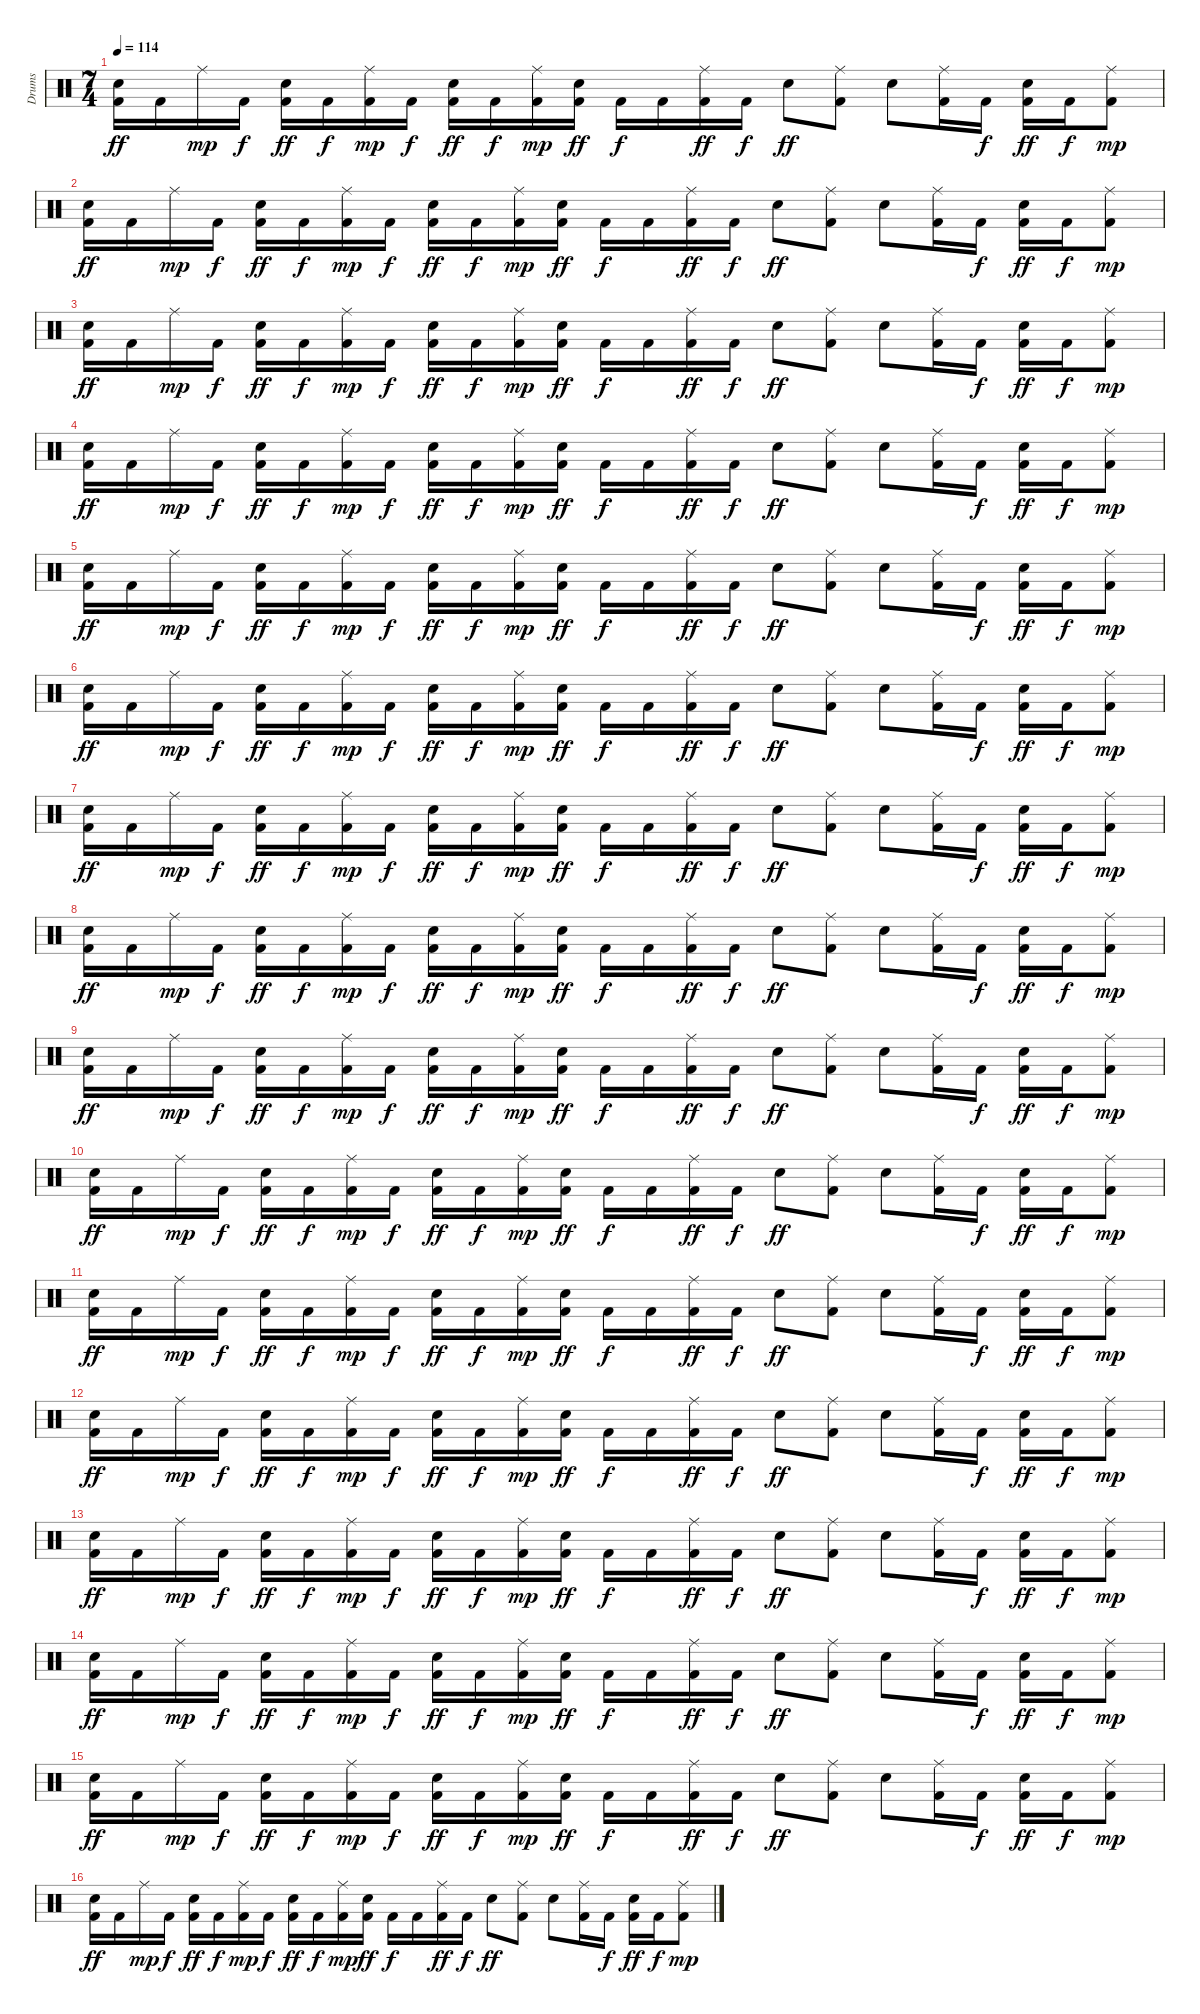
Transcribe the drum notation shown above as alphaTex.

\track ("Drums" "Drums") {instrument percussion}
\staff {score}
\articulation defaults
\ts (7 4)
\tempo 114
\clef neutral
\ks c
("Snare (hit) 2" "Kick (hit) 2").16{dy ff} "Kick (hit) 2".16 "Ride (middle)".16{dy mp} "Kick (hit) 2".16{dy f} ("Snare (hit) 2" "Kick (hit) 2").16{dy ff} "Kick (hit) 2".16{dy f} ("Ride (middle)" "Kick (hit) 2").16{dy mp} "Kick (hit) 2".16{dy f} ("Snare (hit) 2" "Kick (hit) 2").16{dy ff} "Kick (hit) 2".16{dy f} ("Ride (middle)" "Kick (hit) 2").16{dy mp} ("Snare (hit) 2" "Kick (hit) 2").16{dy ff} "Kick (hit) 2".16{dy f} "Kick (hit) 2".16 ("Ride (middle)" "Kick (hit) 2").16{dy ff} "Kick (hit) 2".16{dy f} "Snare (hit) 2".8{dy ff} ("Ride (middle)" "Kick (hit) 2").8 "Snare (hit) 2".8 ("Ride (middle)" "Kick (hit) 2").16 "Kick (hit) 2".16{dy f} ("Snare (hit) 2" "Kick (hit) 2").16{dy ff} "Kick (hit) 2".16{dy f} ("Ride (middle)" "Kick (hit) 2").8{dy mp} |
("Snare (hit) 2" "Kick (hit) 2").16{dy ff} "Kick (hit) 2".16 "Ride (middle)".16{dy mp} "Kick (hit) 2".16{dy f} ("Snare (hit) 2" "Kick (hit) 2").16{dy ff} "Kick (hit) 2".16{dy f} ("Ride (middle)" "Kick (hit) 2").16{dy mp} "Kick (hit) 2".16{dy f} ("Snare (hit) 2" "Kick (hit) 2").16{dy ff} "Kick (hit) 2".16{dy f} ("Ride (middle)" "Kick (hit) 2").16{dy mp} ("Snare (hit) 2" "Kick (hit) 2").16{dy ff} "Kick (hit) 2".16{dy f} "Kick (hit) 2".16 ("Ride (middle)" "Kick (hit) 2").16{dy ff} "Kick (hit) 2".16{dy f} "Snare (hit) 2".8{dy ff} ("Ride (middle)" "Kick (hit) 2").8 "Snare (hit) 2".8 ("Ride (middle)" "Kick (hit) 2").16 "Kick (hit) 2".16{dy f} ("Snare (hit) 2" "Kick (hit) 2").16{dy ff} "Kick (hit) 2".16{dy f} ("Ride (middle)" "Kick (hit) 2").8{dy mp} |
("Snare (hit) 2" "Kick (hit) 2").16{dy ff} "Kick (hit) 2".16 "Ride (middle)".16{dy mp} "Kick (hit) 2".16{dy f} ("Snare (hit) 2" "Kick (hit) 2").16{dy ff} "Kick (hit) 2".16{dy f} ("Ride (middle)" "Kick (hit) 2").16{dy mp} "Kick (hit) 2".16{dy f} ("Snare (hit) 2" "Kick (hit) 2").16{dy ff} "Kick (hit) 2".16{dy f} ("Ride (middle)" "Kick (hit) 2").16{dy mp} ("Snare (hit) 2" "Kick (hit) 2").16{dy ff} "Kick (hit) 2".16{dy f} "Kick (hit) 2".16 ("Ride (middle)" "Kick (hit) 2").16{dy ff} "Kick (hit) 2".16{dy f} "Snare (hit) 2".8{dy ff} ("Ride (middle)" "Kick (hit) 2").8 "Snare (hit) 2".8 ("Ride (middle)" "Kick (hit) 2").16 "Kick (hit) 2".16{dy f} ("Snare (hit) 2" "Kick (hit) 2").16{dy ff} "Kick (hit) 2".16{dy f} ("Ride (middle)" "Kick (hit) 2").8{dy mp} |
("Snare (hit) 2" "Kick (hit) 2").16{dy ff} "Kick (hit) 2".16 "Ride (middle)".16{dy mp} "Kick (hit) 2".16{dy f} ("Snare (hit) 2" "Kick (hit) 2").16{dy ff} "Kick (hit) 2".16{dy f} ("Ride (middle)" "Kick (hit) 2").16{dy mp} "Kick (hit) 2".16{dy f} ("Snare (hit) 2" "Kick (hit) 2").16{dy ff} "Kick (hit) 2".16{dy f} ("Ride (middle)" "Kick (hit) 2").16{dy mp} ("Snare (hit) 2" "Kick (hit) 2").16{dy ff} "Kick (hit) 2".16{dy f} "Kick (hit) 2".16 ("Ride (middle)" "Kick (hit) 2").16{dy ff} "Kick (hit) 2".16{dy f} "Snare (hit) 2".8{dy ff} ("Ride (middle)" "Kick (hit) 2").8 "Snare (hit) 2".8 ("Ride (middle)" "Kick (hit) 2").16 "Kick (hit) 2".16{dy f} ("Snare (hit) 2" "Kick (hit) 2").16{dy ff} "Kick (hit) 2".16{dy f} ("Ride (middle)" "Kick (hit) 2").8{dy mp} |
("Snare (hit) 2" "Kick (hit) 2").16{dy ff} "Kick (hit) 2".16 "Ride (middle)".16{dy mp} "Kick (hit) 2".16{dy f} ("Snare (hit) 2" "Kick (hit) 2").16{dy ff} "Kick (hit) 2".16{dy f} ("Ride (middle)" "Kick (hit) 2").16{dy mp} "Kick (hit) 2".16{dy f} ("Snare (hit) 2" "Kick (hit) 2").16{dy ff} "Kick (hit) 2".16{dy f} ("Ride (middle)" "Kick (hit) 2").16{dy mp} ("Snare (hit) 2" "Kick (hit) 2").16{dy ff} "Kick (hit) 2".16{dy f} "Kick (hit) 2".16 ("Ride (middle)" "Kick (hit) 2").16{dy ff} "Kick (hit) 2".16{dy f} "Snare (hit) 2".8{dy ff} ("Ride (middle)" "Kick (hit) 2").8 "Snare (hit) 2".8 ("Ride (middle)" "Kick (hit) 2").16 "Kick (hit) 2".16{dy f} ("Snare (hit) 2" "Kick (hit) 2").16{dy ff} "Kick (hit) 2".16{dy f} ("Ride (middle)" "Kick (hit) 2").8{dy mp} |
("Snare (hit) 2" "Kick (hit) 2").16{dy ff} "Kick (hit) 2".16 "Ride (middle)".16{dy mp} "Kick (hit) 2".16{dy f} ("Snare (hit) 2" "Kick (hit) 2").16{dy ff} "Kick (hit) 2".16{dy f} ("Ride (middle)" "Kick (hit) 2").16{dy mp} "Kick (hit) 2".16{dy f} ("Snare (hit) 2" "Kick (hit) 2").16{dy ff} "Kick (hit) 2".16{dy f} ("Ride (middle)" "Kick (hit) 2").16{dy mp} ("Snare (hit) 2" "Kick (hit) 2").16{dy ff} "Kick (hit) 2".16{dy f} "Kick (hit) 2".16 ("Ride (middle)" "Kick (hit) 2").16{dy ff} "Kick (hit) 2".16{dy f} "Snare (hit) 2".8{dy ff} ("Ride (middle)" "Kick (hit) 2").8 "Snare (hit) 2".8 ("Ride (middle)" "Kick (hit) 2").16 "Kick (hit) 2".16{dy f} ("Snare (hit) 2" "Kick (hit) 2").16{dy ff} "Kick (hit) 2".16{dy f} ("Ride (middle)" "Kick (hit) 2").8{dy mp} |
("Snare (hit) 2" "Kick (hit) 2").16{dy ff} "Kick (hit) 2".16 "Ride (middle)".16{dy mp} "Kick (hit) 2".16{dy f} ("Snare (hit) 2" "Kick (hit) 2").16{dy ff} "Kick (hit) 2".16{dy f} ("Ride (middle)" "Kick (hit) 2").16{dy mp} "Kick (hit) 2".16{dy f} ("Snare (hit) 2" "Kick (hit) 2").16{dy ff} "Kick (hit) 2".16{dy f} ("Ride (middle)" "Kick (hit) 2").16{dy mp} ("Snare (hit) 2" "Kick (hit) 2").16{dy ff} "Kick (hit) 2".16{dy f} "Kick (hit) 2".16 ("Ride (middle)" "Kick (hit) 2").16{dy ff} "Kick (hit) 2".16{dy f} "Snare (hit) 2".8{dy ff} ("Ride (middle)" "Kick (hit) 2").8 "Snare (hit) 2".8 ("Ride (middle)" "Kick (hit) 2").16 "Kick (hit) 2".16{dy f} ("Snare (hit) 2" "Kick (hit) 2").16{dy ff} "Kick (hit) 2".16{dy f} ("Ride (middle)" "Kick (hit) 2").8{dy mp} |
("Snare (hit) 2" "Kick (hit) 2").16{dy ff} "Kick (hit) 2".16 "Ride (middle)".16{dy mp} "Kick (hit) 2".16{dy f} ("Snare (hit) 2" "Kick (hit) 2").16{dy ff} "Kick (hit) 2".16{dy f} ("Ride (middle)" "Kick (hit) 2").16{dy mp} "Kick (hit) 2".16{dy f} ("Snare (hit) 2" "Kick (hit) 2").16{dy ff} "Kick (hit) 2".16{dy f} ("Ride (middle)" "Kick (hit) 2").16{dy mp} ("Snare (hit) 2" "Kick (hit) 2").16{dy ff} "Kick (hit) 2".16{dy f} "Kick (hit) 2".16 ("Ride (middle)" "Kick (hit) 2").16{dy ff} "Kick (hit) 2".16{dy f} "Snare (hit) 2".8{dy ff} ("Ride (middle)" "Kick (hit) 2").8 "Snare (hit) 2".8 ("Ride (middle)" "Kick (hit) 2").16 "Kick (hit) 2".16{dy f} ("Snare (hit) 2" "Kick (hit) 2").16{dy ff} "Kick (hit) 2".16{dy f} ("Ride (middle)" "Kick (hit) 2").8{dy mp} |
("Snare (hit) 2" "Kick (hit) 2").16{dy ff} "Kick (hit) 2".16 "Ride (middle)".16{dy mp} "Kick (hit) 2".16{dy f} ("Snare (hit) 2" "Kick (hit) 2").16{dy ff} "Kick (hit) 2".16{dy f} ("Ride (middle)" "Kick (hit) 2").16{dy mp} "Kick (hit) 2".16{dy f} ("Snare (hit) 2" "Kick (hit) 2").16{dy ff} "Kick (hit) 2".16{dy f} ("Ride (middle)" "Kick (hit) 2").16{dy mp} ("Snare (hit) 2" "Kick (hit) 2").16{dy ff} "Kick (hit) 2".16{dy f} "Kick (hit) 2".16 ("Ride (middle)" "Kick (hit) 2").16{dy ff} "Kick (hit) 2".16{dy f} "Snare (hit) 2".8{dy ff} ("Ride (middle)" "Kick (hit) 2").8 "Snare (hit) 2".8 ("Ride (middle)" "Kick (hit) 2").16 "Kick (hit) 2".16{dy f} ("Snare (hit) 2" "Kick (hit) 2").16{dy ff} "Kick (hit) 2".16{dy f} ("Ride (middle)" "Kick (hit) 2").8{dy mp} |
("Snare (hit) 2" "Kick (hit) 2").16{dy ff} "Kick (hit) 2".16 "Ride (middle)".16{dy mp} "Kick (hit) 2".16{dy f} ("Snare (hit) 2" "Kick (hit) 2").16{dy ff} "Kick (hit) 2".16{dy f} ("Ride (middle)" "Kick (hit) 2").16{dy mp} "Kick (hit) 2".16{dy f} ("Snare (hit) 2" "Kick (hit) 2").16{dy ff} "Kick (hit) 2".16{dy f} ("Ride (middle)" "Kick (hit) 2").16{dy mp} ("Snare (hit) 2" "Kick (hit) 2").16{dy ff} "Kick (hit) 2".16{dy f} "Kick (hit) 2".16 ("Ride (middle)" "Kick (hit) 2").16{dy ff} "Kick (hit) 2".16{dy f} "Snare (hit) 2".8{dy ff} ("Ride (middle)" "Kick (hit) 2").8 "Snare (hit) 2".8 ("Ride (middle)" "Kick (hit) 2").16 "Kick (hit) 2".16{dy f} ("Snare (hit) 2" "Kick (hit) 2").16{dy ff} "Kick (hit) 2".16{dy f} ("Ride (middle)" "Kick (hit) 2").8{dy mp} |
("Snare (hit) 2" "Kick (hit) 2").16{dy ff} "Kick (hit) 2".16 "Ride (middle)".16{dy mp} "Kick (hit) 2".16{dy f} ("Snare (hit) 2" "Kick (hit) 2").16{dy ff} "Kick (hit) 2".16{dy f} ("Ride (middle)" "Kick (hit) 2").16{dy mp} "Kick (hit) 2".16{dy f} ("Snare (hit) 2" "Kick (hit) 2").16{dy ff} "Kick (hit) 2".16{dy f} ("Ride (middle)" "Kick (hit) 2").16{dy mp} ("Snare (hit) 2" "Kick (hit) 2").16{dy ff} "Kick (hit) 2".16{dy f} "Kick (hit) 2".16 ("Ride (middle)" "Kick (hit) 2").16{dy ff} "Kick (hit) 2".16{dy f} "Snare (hit) 2".8{dy ff} ("Ride (middle)" "Kick (hit) 2").8 "Snare (hit) 2".8 ("Ride (middle)" "Kick (hit) 2").16 "Kick (hit) 2".16{dy f} ("Snare (hit) 2" "Kick (hit) 2").16{dy ff} "Kick (hit) 2".16{dy f} ("Ride (middle)" "Kick (hit) 2").8{dy mp} |
("Snare (hit) 2" "Kick (hit) 2").16{dy ff} "Kick (hit) 2".16 "Ride (middle)".16{dy mp} "Kick (hit) 2".16{dy f} ("Snare (hit) 2" "Kick (hit) 2").16{dy ff} "Kick (hit) 2".16{dy f} ("Ride (middle)" "Kick (hit) 2").16{dy mp} "Kick (hit) 2".16{dy f} ("Snare (hit) 2" "Kick (hit) 2").16{dy ff} "Kick (hit) 2".16{dy f} ("Ride (middle)" "Kick (hit) 2").16{dy mp} ("Snare (hit) 2" "Kick (hit) 2").16{dy ff} "Kick (hit) 2".16{dy f} "Kick (hit) 2".16 ("Ride (middle)" "Kick (hit) 2").16{dy ff} "Kick (hit) 2".16{dy f} "Snare (hit) 2".8{dy ff} ("Ride (middle)" "Kick (hit) 2").8 "Snare (hit) 2".8 ("Ride (middle)" "Kick (hit) 2").16 "Kick (hit) 2".16{dy f} ("Snare (hit) 2" "Kick (hit) 2").16{dy ff} "Kick (hit) 2".16{dy f} ("Ride (middle)" "Kick (hit) 2").8{dy mp} |
("Snare (hit) 2" "Kick (hit) 2").16{dy ff} "Kick (hit) 2".16 "Ride (middle)".16{dy mp} "Kick (hit) 2".16{dy f} ("Snare (hit) 2" "Kick (hit) 2").16{dy ff} "Kick (hit) 2".16{dy f} ("Ride (middle)" "Kick (hit) 2").16{dy mp} "Kick (hit) 2".16{dy f} ("Snare (hit) 2" "Kick (hit) 2").16{dy ff} "Kick (hit) 2".16{dy f} ("Ride (middle)" "Kick (hit) 2").16{dy mp} ("Snare (hit) 2" "Kick (hit) 2").16{dy ff} "Kick (hit) 2".16{dy f} "Kick (hit) 2".16 ("Ride (middle)" "Kick (hit) 2").16{dy ff} "Kick (hit) 2".16{dy f} "Snare (hit) 2".8{dy ff} ("Ride (middle)" "Kick (hit) 2").8 "Snare (hit) 2".8 ("Ride (middle)" "Kick (hit) 2").16 "Kick (hit) 2".16{dy f} ("Snare (hit) 2" "Kick (hit) 2").16{dy ff} "Kick (hit) 2".16{dy f} ("Ride (middle)" "Kick (hit) 2").8{dy mp} |
("Snare (hit) 2" "Kick (hit) 2").16{dy ff} "Kick (hit) 2".16 "Ride (middle)".16{dy mp} "Kick (hit) 2".16{dy f} ("Snare (hit) 2" "Kick (hit) 2").16{dy ff} "Kick (hit) 2".16{dy f} ("Ride (middle)" "Kick (hit) 2").16{dy mp} "Kick (hit) 2".16{dy f} ("Snare (hit) 2" "Kick (hit) 2").16{dy ff} "Kick (hit) 2".16{dy f} ("Ride (middle)" "Kick (hit) 2").16{dy mp} ("Snare (hit) 2" "Kick (hit) 2").16{dy ff} "Kick (hit) 2".16{dy f} "Kick (hit) 2".16 ("Ride (middle)" "Kick (hit) 2").16{dy ff} "Kick (hit) 2".16{dy f} "Snare (hit) 2".8{dy ff} ("Ride (middle)" "Kick (hit) 2").8 "Snare (hit) 2".8 ("Ride (middle)" "Kick (hit) 2").16 "Kick (hit) 2".16{dy f} ("Snare (hit) 2" "Kick (hit) 2").16{dy ff} "Kick (hit) 2".16{dy f} ("Ride (middle)" "Kick (hit) 2").8{dy mp} |
("Snare (hit) 2" "Kick (hit) 2").16{dy ff volume 5} "Kick (hit) 2".16 "Ride (middle)".16{dy mp} "Kick (hit) 2".16{dy f} ("Snare (hit) 2" "Kick (hit) 2").16{dy ff} "Kick (hit) 2".16{dy f} ("Ride (middle)" "Kick (hit) 2").16{dy mp} "Kick (hit) 2".16{dy f} ("Snare (hit) 2" "Kick (hit) 2").16{dy ff} "Kick (hit) 2".16{dy f} ("Ride (middle)" "Kick (hit) 2").16{dy mp} ("Snare (hit) 2" "Kick (hit) 2").16{dy ff} "Kick (hit) 2".16{dy f} "Kick (hit) 2".16 ("Ride (middle)" "Kick (hit) 2").16{dy ff} "Kick (hit) 2".16{dy f} "Snare (hit) 2".8{dy ff} ("Ride (middle)" "Kick (hit) 2").8 "Snare (hit) 2".8 ("Ride (middle)" "Kick (hit) 2").16 "Kick (hit) 2".16{dy f} ("Snare (hit) 2" "Kick (hit) 2").16{dy ff} "Kick (hit) 2".16{dy f} ("Ride (middle)" "Kick (hit) 2").8{dy mp} |
("Snare (hit) 2" "Kick (hit) 2").16{dy ff} "Kick (hit) 2".16 "Ride (middle)".16{dy mp} "Kick (hit) 2".16{dy f} ("Snare (hit) 2" "Kick (hit) 2").16{dy ff} "Kick (hit) 2".16{dy f} ("Ride (middle)" "Kick (hit) 2").16{dy mp} "Kick (hit) 2".16{dy f} ("Snare (hit) 2" "Kick (hit) 2").16{dy ff} "Kick (hit) 2".16{dy f} ("Ride (middle)" "Kick (hit) 2").16{dy mp} ("Snare (hit) 2" "Kick (hit) 2").16{dy ff} "Kick (hit) 2".16{dy f} "Kick (hit) 2".16 ("Ride (middle)" "Kick (hit) 2").16{dy ff} "Kick (hit) 2".16{dy f} "Snare (hit) 2".8{dy ff} ("Ride (middle)" "Kick (hit) 2").8 "Snare (hit) 2".8 ("Ride (middle)" "Kick (hit) 2").16 "Kick (hit) 2".16{dy f} ("Snare (hit) 2" "Kick (hit) 2").16{dy ff} "Kick (hit) 2".16{dy f} ("Ride (middle)" "Kick (hit) 2").8{dy mp}
